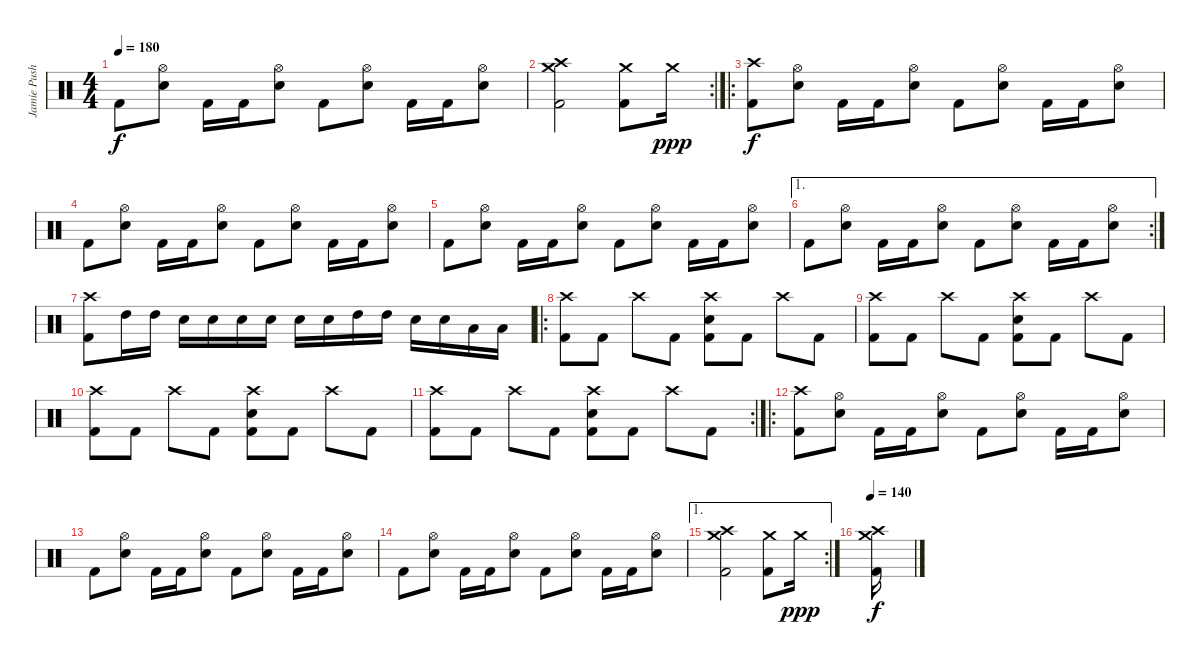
\track ("Jamie Pushbutton" "Jamie Push") {instrument percussion}
\staff {score}
\articulation defaults
\ts (4 4)
\tempo 180
\clef neutral
\ks c "Kick (hit) 2".8{dy f}
("Hi-Hat (open)" "Electric Snare (hit)").8 "Kick (hit) 2".16 "Kick (hit) 2".16 ("Hi-Hat (open)" "Electric Snare (hit)").8 "Kick (hit) 2".8 ("Hi-Hat (open)" "Electric Snare (hit)").8 "Kick (hit) 2".16 "Kick (hit) 2".16 ("Hi-Hat (open)" "Electric Snare (hit)").8 |
\rc 2
("Crash high (hit)" "Crash medium (hit)" "Kick (hit) 2").2 ("Crash medium (hit)" "Kick (hit) 2").8 "Crash medium (hit)".16{dy ppp} |
\ro
("Crash high (hit)" "Kick (hit) 2").8{dy f} ("Hi-Hat (open)" "Electric Snare (hit)").8 "Kick (hit) 2".16 "Kick (hit) 2".16 ("Hi-Hat (open)" "Electric Snare (hit)").8 "Kick (hit) 2".8 ("Hi-Hat (open)" "Electric Snare (hit)").8 "Kick (hit) 2".16 "Kick (hit) 2".16 ("Hi-Hat (open)" "Electric Snare (hit)").8 |
"Kick (hit) 2".8 ("Hi-Hat (open)" "Electric Snare (hit)").8 "Kick (hit) 2".16 "Kick (hit) 2".16 ("Hi-Hat (open)" "Electric Snare (hit)").8 "Kick (hit) 2".8 ("Hi-Hat (open)" "Electric Snare (hit)").8 "Kick (hit) 2".16 "Kick (hit) 2".16 ("Hi-Hat (open)" "Electric Snare (hit)").8 |
"Kick (hit) 2".8 ("Hi-Hat (open)" "Electric Snare (hit)").8 "Kick (hit) 2".16 "Kick (hit) 2".16 ("Hi-Hat (open)" "Electric Snare (hit)").8 "Kick (hit) 2".8 ("Hi-Hat (open)" "Electric Snare (hit)").8 "Kick (hit) 2".16 "Kick (hit) 2".16 ("Hi-Hat (open)" "Electric Snare (hit)").8 |
\ae 1
\rc 2 "Kick (hit) 2".8
("Hi-Hat (open)" "Electric Snare (hit)").8 "Kick (hit) 2".16 "Kick (hit) 2".16 ("Hi-Hat (open)" "Electric Snare (hit)").8 "Kick (hit) 2".8 ("Hi-Hat (open)" "Electric Snare (hit)").8 "Kick (hit) 2".16 "Kick (hit) 2".16 ("Hi-Hat (open)" "Electric Snare (hit)").8 |
("Crash high (hit)" "Kick (hit) 2").8 "High Tom (hit)".16 "High Tom (hit)".16 "Electric Snare (hit)".16 "Electric Snare (hit)".16 "Electric Snare (hit)".16 "Electric Snare (hit)".16 "Electric Snare (hit)".16 "Electric Snare (hit)".16 "High Tom (hit)".16 "High Tom (hit)".16 "Electric Snare (hit)".16 "Electric Snare (hit)".16 "Low Tom (hit)".16 "Low Tom (hit)".16 |
\ro
("Crash high (hit)" "Kick (hit) 2").8 "Kick (hit) 2".8 "Crash high (hit)".8 "Kick (hit) 2".8 ("Crash high (hit)" "Electric Snare (hit)" "Kick (hit) 2").8 "Kick (hit) 2".8 "Crash high (hit)".8 "Kick (hit) 2".8 |
("Crash high (hit)" "Kick (hit) 2").8 "Kick (hit) 2".8 "Crash high (hit)".8 "Kick (hit) 2".8 ("Crash high (hit)" "Electric Snare (hit)" "Kick (hit) 2").8 "Kick (hit) 2".8 "Crash high (hit)".8 "Kick (hit) 2".8 |
("Crash high (hit)" "Kick (hit) 2").8 "Kick (hit) 2".8 "Crash high (hit)".8 "Kick (hit) 2".8 ("Crash high (hit)" "Electric Snare (hit)" "Kick (hit) 2").8 "Kick (hit) 2".8 "Crash high (hit)".8 "Kick (hit) 2".8 |
\rc 2
("Crash high (hit)" "Kick (hit) 2").8 "Kick (hit) 2".8 "Crash high (hit)".8 "Kick (hit) 2".8 ("Crash high (hit)" "Electric Snare (hit)" "Kick (hit) 2").8 "Kick (hit) 2".8 "Crash high (hit)".8 "Kick (hit) 2".8 |
\ro
("Crash high (hit)" "Kick (hit) 2").8 ("Hi-Hat (open)" "Electric Snare (hit)").8 "Kick (hit) 2".16 "Kick (hit) 2".16 ("Hi-Hat (open)" "Electric Snare (hit)").8 "Kick (hit) 2".8 ("Hi-Hat (open)" "Electric Snare (hit)").8 "Kick (hit) 2".16 "Kick (hit) 2".16 ("Hi-Hat (open)" "Electric Snare (hit)").8 |
"Kick (hit) 2".8 ("Hi-Hat (open)" "Electric Snare (hit)").8 "Kick (hit) 2".16 "Kick (hit) 2".16 ("Hi-Hat (open)" "Electric Snare (hit)").8 "Kick (hit) 2".8 ("Hi-Hat (open)" "Electric Snare (hit)").8 "Kick (hit) 2".16 "Kick (hit) 2".16 ("Hi-Hat (open)" "Electric Snare (hit)").8 |
"Kick (hit) 2".8 ("Hi-Hat (open)" "Electric Snare (hit)").8 "Kick (hit) 2".16 "Kick (hit) 2".16 ("Hi-Hat (open)" "Electric Snare (hit)").8 "Kick (hit) 2".8 ("Hi-Hat (open)" "Electric Snare (hit)").8 "Kick (hit) 2".16 "Kick (hit) 2".16 ("Hi-Hat (open)" "Electric Snare (hit)").8 |
\ae 1
\rc 2
("Crash high (hit)" "Crash medium (hit)" "Kick (hit) 2").2 ("Crash medium (hit)" "Kick (hit) 2").8 "Crash medium (hit)".16{dy ppp} |
\tempo 145
\tempo 140
("Crash high (hit)" "Crash medium (hit)" "Kick (hit) 2").16{dy f}
